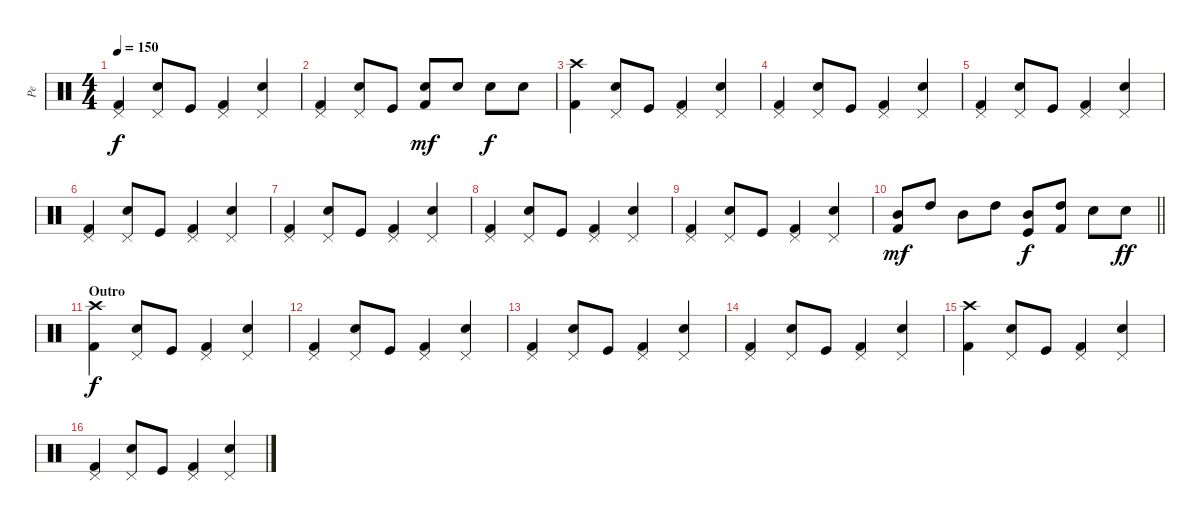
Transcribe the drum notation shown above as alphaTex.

\track ("Pe" "Pe") {instrument percussion}
\staff {score}
\articulation defaults
\ts (4 4)
\tempo 150
\clef neutral
\ks c
("Kick (hit) 2" "Pedal Hi-Hat (hit)").4{dy f} ("Electric Snare (hit)" "Pedal Hi-Hat (hit)").8 "Kick (hit)".8 ("Kick (hit) 2" "Pedal Hi-Hat (hit)").4 ("Electric Snare (hit)" "Pedal Hi-Hat (hit)").4 |
("Kick (hit) 2" "Pedal Hi-Hat (hit)").4 ("Electric Snare (hit)" "Pedal Hi-Hat (hit)").8 "Kick (hit)".8 ("Kick (hit) 2" "Electric Snare (hit)").8{dy mf} "Electric Snare (hit)".8 "Electric Snare (hit)".8{dy f} "Electric Snare (hit)".8 |
("Kick (hit) 2" "Crash high (hit)").4 ("Electric Snare (hit)" "Pedal Hi-Hat (hit)").8 "Kick (hit)".8 ("Kick (hit) 2" "Pedal Hi-Hat (hit)").4 ("Electric Snare (hit)" "Pedal Hi-Hat (hit)").4 |
("Kick (hit) 2" "Pedal Hi-Hat (hit)").4 ("Electric Snare (hit)" "Pedal Hi-Hat (hit)").8 "Kick (hit)".8 ("Kick (hit) 2" "Pedal Hi-Hat (hit)").4 ("Electric Snare (hit)" "Pedal Hi-Hat (hit)").4 |
("Kick (hit) 2" "Pedal Hi-Hat (hit)").4 ("Electric Snare (hit)" "Pedal Hi-Hat (hit)").8 "Kick (hit)".8 ("Kick (hit) 2" "Pedal Hi-Hat (hit)").4 ("Electric Snare (hit)" "Pedal Hi-Hat (hit)").4 |
("Kick (hit) 2" "Pedal Hi-Hat (hit)").4 ("Electric Snare (hit)" "Pedal Hi-Hat (hit)").8 "Kick (hit)".8 ("Kick (hit) 2" "Pedal Hi-Hat (hit)").4 ("Electric Snare (hit)" "Pedal Hi-Hat (hit)").4 |
("Kick (hit) 2" "Pedal Hi-Hat (hit)").4 ("Electric Snare (hit)" "Pedal Hi-Hat (hit)").8 "Kick (hit)".8 ("Kick (hit) 2" "Pedal Hi-Hat (hit)").4 ("Electric Snare (hit)" "Pedal Hi-Hat (hit)").4 |
("Kick (hit) 2" "Pedal Hi-Hat (hit)").4 ("Electric Snare (hit)" "Pedal Hi-Hat (hit)").8 "Kick (hit)".8 ("Kick (hit) 2" "Pedal Hi-Hat (hit)").4 ("Electric Snare (hit)" "Pedal Hi-Hat (hit)").4 |
("Kick (hit) 2" "Pedal Hi-Hat (hit)").4 ("Electric Snare (hit)" "Pedal Hi-Hat (hit)").8 "Kick (hit)".8 ("Kick (hit) 2" "Pedal Hi-Hat (hit)").4 ("Electric Snare (hit)" "Pedal Hi-Hat (hit)").4 |
\barLineRight lightlight
("Kick (hit) 2" "Mid Tom (hit)").8{dy mf} "High Tom (hit)".8 "Mid Tom (hit)".8 "High Tom (hit)".8 ("Kick (hit)" "Mid Tom (hit)").8{dy f} ("Kick (hit) 2" "High Tom (hit)").8 "Electric Snare (hit)".8 "Electric Snare (hit)".8{dy ff} |
\section ("" "Outro")
("Kick (hit) 2" "Crash high (hit)").4{dy f} ("Electric Snare (hit)" "Pedal Hi-Hat (hit)").8 "Kick (hit)".8 ("Kick (hit) 2" "Pedal Hi-Hat (hit)").4 ("Electric Snare (hit)" "Pedal Hi-Hat (hit)").4 |
("Kick (hit) 2" "Pedal Hi-Hat (hit)").4 ("Electric Snare (hit)" "Pedal Hi-Hat (hit)").8 "Kick (hit)".8 ("Kick (hit) 2" "Pedal Hi-Hat (hit)").4 ("Electric Snare (hit)" "Pedal Hi-Hat (hit)").4 |
("Kick (hit) 2" "Pedal Hi-Hat (hit)").4 ("Electric Snare (hit)" "Pedal Hi-Hat (hit)").8 "Kick (hit)".8 ("Kick (hit) 2" "Pedal Hi-Hat (hit)").4 ("Electric Snare (hit)" "Pedal Hi-Hat (hit)").4 |
("Kick (hit) 2" "Pedal Hi-Hat (hit)").4 ("Electric Snare (hit)" "Pedal Hi-Hat (hit)").8 "Kick (hit)".8 ("Kick (hit) 2" "Pedal Hi-Hat (hit)").4 ("Electric Snare (hit)" "Pedal Hi-Hat (hit)").4 |
("Kick (hit) 2" "Crash high (hit)").4 ("Electric Snare (hit)" "Pedal Hi-Hat (hit)").8 "Kick (hit)".8 ("Kick (hit) 2" "Pedal Hi-Hat (hit)").4 ("Electric Snare (hit)" "Pedal Hi-Hat (hit)").4 |
("Kick (hit) 2" "Pedal Hi-Hat (hit)").4 ("Electric Snare (hit)" "Pedal Hi-Hat (hit)").8 "Kick (hit)".8 ("Kick (hit) 2" "Pedal Hi-Hat (hit)").4 ("Electric Snare (hit)" "Pedal Hi-Hat (hit)").4
